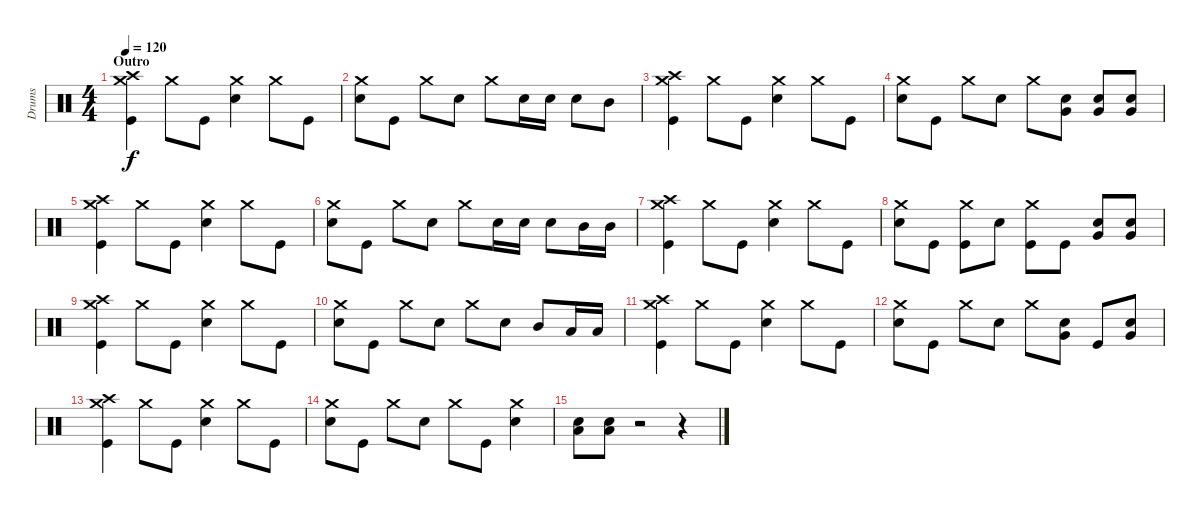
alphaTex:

\track ("Drums" "Drums") {instrument percussion}
\staff {score}
\articulation defaults
\ts (4 4)
\section ("" "Outro")
\tempo 120
\clef neutral
\ks c
("Crash high (hit)" "Crash medium (hit)" "Kick (hit)").4{dy f} "Crash medium (hit)".8 "Kick (hit)".8 ("Crash medium (hit)" "Electric Snare (hit)").4 "Crash medium (hit)".8 "Kick (hit)".8 |
("Crash medium (hit)" "Electric Snare (hit)").8 "Kick (hit)".8 "Crash medium (hit)".8 "Electric Snare (hit)".8 "Crash medium (hit)".8 "Electric Snare (hit)".16 "Electric Snare (hit)".16 "Electric Snare (hit)".8 "Mid Tom (hit)".8 |
("Crash high (hit)" "Crash medium (hit)" "Kick (hit)").4 "Crash medium (hit)".8 "Kick (hit)".8 ("Crash medium (hit)" "Electric Snare (hit)").4 "Crash medium (hit)".8 "Kick (hit)".8 |
("Crash medium (hit)" "Electric Snare (hit)").8 "Kick (hit)".8 "Crash medium (hit)".8 "Electric Snare (hit)".8 "Crash medium (hit)".8 ("Very Low Tom (hit)" "Electric Snare (hit)").8 ("Very Low Tom (hit)" "Electric Snare (hit)").8 ("Very Low Tom (hit)" "Electric Snare (hit)").8 |
("Crash high (hit)" "Crash medium (hit)" "Kick (hit)").4 "Crash medium (hit)".8 "Kick (hit)".8 ("Crash medium (hit)" "Electric Snare (hit)").4 "Crash medium (hit)".8 "Kick (hit)".8 |
("Crash medium (hit)" "Electric Snare (hit)").8 "Kick (hit)".8 "Crash medium (hit)".8 "Electric Snare (hit)".8 "Crash medium (hit)".8 "Electric Snare (hit)".16 "Electric Snare (hit)".16 "Electric Snare (hit)".8 "Mid Tom (hit)".16 "Mid Tom (hit)".16 |
("Crash high (hit)" "Crash medium (hit)" "Kick (hit)").4 "Crash medium (hit)".8 "Kick (hit)".8 ("Crash medium (hit)" "Electric Snare (hit)").4 "Crash medium (hit)".8 "Kick (hit)".8 |
("Crash medium (hit)" "Electric Snare (hit)").8 "Kick (hit)".8 ("Crash medium (hit)" "Kick (hit)").8 "Electric Snare (hit)".8 ("Crash medium (hit)" "Kick (hit)").8 "Kick (hit)".8 ("Very Low Tom (hit)" "Electric Snare (hit)").8 ("Very Low Tom (hit)" "Electric Snare (hit)").8 |
("Crash high (hit)" "Crash medium (hit)" "Kick (hit)").4 "Crash medium (hit)".8 "Kick (hit)".8 ("Crash medium (hit)" "Electric Snare (hit)").4 "Crash medium (hit)".8 "Kick (hit)".8 |
("Crash medium (hit)" "Electric Snare (hit)").8 "Kick (hit)".8 "Crash medium (hit)".8 "Electric Snare (hit)".8 "Crash medium (hit)".8 "Electric Snare (hit)".8 "Mid Tom (hit)".8 "Low Tom (hit)".16 "Low Tom (hit)".16 |
("Crash high (hit)" "Crash medium (hit)" "Kick (hit)").4 "Crash medium (hit)".8 "Kick (hit)".8 ("Crash medium (hit)" "Electric Snare (hit)").4 "Crash medium (hit)".8 "Kick (hit)".8 |
("Crash medium (hit)" "Electric Snare (hit)").8 "Kick (hit)".8 "Crash medium (hit)".8 "Electric Snare (hit)".8 "Crash medium (hit)".8 ("Very Low Tom (hit)" "Electric Snare (hit)").8 "Kick (hit)".8 ("Very Low Tom (hit)" "Electric Snare (hit)").8 |
("Crash high (hit)" "Crash medium (hit)" "Kick (hit)").4 "Crash medium (hit)".8 "Kick (hit)".8 ("Crash medium (hit)" "Electric Snare (hit)").4 "Crash medium (hit)".8 "Kick (hit)".8 |
("Crash medium (hit)" "Electric Snare (hit)").8 "Kick (hit)".8 "Crash medium (hit)".8 "Electric Snare (hit)".8 "Crash medium (hit)".8 "Kick (hit)".8 ("Crash medium (hit)" "Electric Snare (hit)").4 |
("Low Tom (hit)" "Electric Snare (hit)").8 ("Low Tom (hit)" "Electric Snare (hit)").8 r.2 r.4
